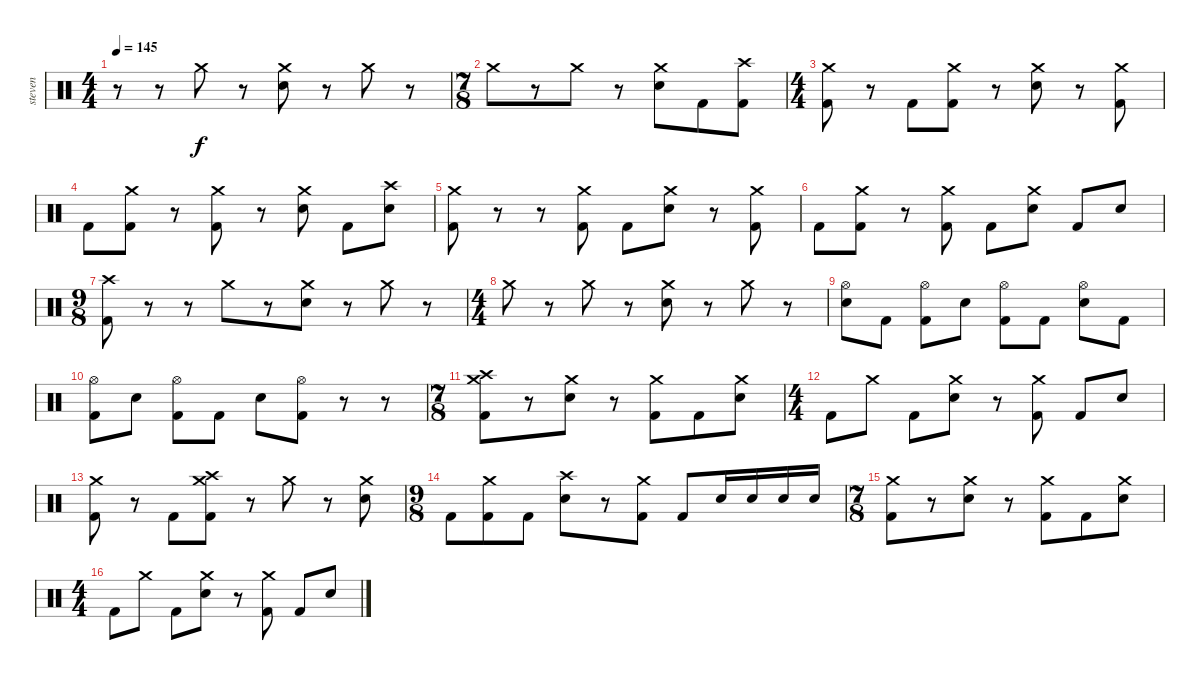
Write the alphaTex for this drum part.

\track ("steven" "steven") {instrument percussion}
\staff {score}
\articulation defaults
\ts (4 4)
\tempo 145
\clef neutral
\ks c
r.8{dy f} r.8 "Crash medium (hit)".8 r.8 ("Crash medium (hit)" "Electric Snare (hit)").8 r.8 "Crash medium (hit)".8 r.8 |
\ts (7 8)
"Crash medium (hit)".8 r.8 "Crash medium (hit)".8 r.8 ("Crash medium (hit)" "Electric Snare (hit)").8 "Kick (hit) 2".8 ("Crash high (hit)" "Kick (hit) 2").8 |
\ts (4 4)
("Crash medium (hit)" "Kick (hit) 2").8 r.8 "Kick (hit) 2".8 ("Crash medium (hit)" "Kick (hit) 2").8 r.8 ("Crash medium (hit)" "Electric Snare (hit)").8 r.8 ("Crash medium (hit)" "Kick (hit) 2").8 |
"Kick (hit) 2".8 ("Crash medium (hit)" "Kick (hit) 2").8 r.8 ("Crash medium (hit)" "Kick (hit) 2").8 r.8 ("Crash medium (hit)" "Electric Snare (hit)").8 "Kick (hit) 2".8 ("Crash high (hit)" "Electric Snare (hit)").8 |
("Crash medium (hit)" "Kick (hit) 2").8 r.8 r.8 ("Crash medium (hit)" "Kick (hit) 2").8 "Kick (hit) 2".8 ("Crash medium (hit)" "Electric Snare (hit)").8 r.8 ("Crash medium (hit)" "Kick (hit) 2").8 |
"Kick (hit) 2".8 ("Crash medium (hit)" "Kick (hit) 2").8 r.8 ("Crash medium (hit)" "Kick (hit) 2").8 "Kick (hit) 2".8 ("Crash medium (hit)" "Electric Snare (hit)").8 "Kick (hit) 2".8 "Electric Snare (hit)".8 |
\ts (9 8)
("Crash high (hit)" "Kick (hit) 2").8 r.8 r.8 "Crash medium (hit)".8 r.8 ("Crash medium (hit)" "Electric Snare (hit)").8 r.8 "Crash medium (hit)".8 r.8 |
\ts (4 4)
"Crash medium (hit)".8 r.8 "Crash medium (hit)".8 r.8 ("Crash medium (hit)" "Electric Snare (hit)").8 r.8 "Crash medium (hit)".8 r.8 |
("Hi-Hat (open)" "Electric Snare (hit)").8 "Kick (hit) 2".8 ("Hi-Hat (open)" "Kick (hit) 2").8 "Electric Snare (hit)".8 ("Hi-Hat (open)" "Kick (hit) 2").8 "Kick (hit) 2".8 ("Hi-Hat (open)" "Electric Snare (hit)").8 "Kick (hit) 2".8 |
("Hi-Hat (open)" "Kick (hit) 2").8 "Electric Snare (hit)".8 ("Hi-Hat (open)" "Kick (hit) 2").8 "Kick (hit) 2".8 "Electric Snare (hit)".8 ("Hi-Hat (open)" "Kick (hit) 2").8 r.8 r.8 |
\ts (7 8)
("Crash medium (hit)" "Crash high (hit)" "Kick (hit) 2").8 r.8 ("Crash medium (hit)" "Electric Snare (hit)").8 r.8 ("Crash medium (hit)" "Kick (hit) 2").8 "Kick (hit) 2".8 ("Crash medium (hit)" "Electric Snare (hit)").8 |
\ts (4 4)
"Kick (hit) 2".8 "Crash medium (hit)".8 "Kick (hit) 2".8 ("Crash medium (hit)" "Electric Snare (hit)").8 r.8 ("Crash medium (hit)" "Kick (hit) 2").8 "Kick (hit) 2".8 "Electric Snare (hit)".8 |
("Crash medium (hit)" "Kick (hit) 2").8 r.8 "Kick (hit) 2".8 ("Crash medium (hit)" "Crash high (hit)" "Kick (hit) 2").8 r.8 "Crash medium (hit)".8 r.8 ("Crash medium (hit)" "Electric Snare (hit)").8 |
\ts (9 8)
"Kick (hit) 2".8 ("Crash medium (hit)" "Kick (hit) 2").8 "Kick (hit) 2".8 ("Crash high (hit)" "Electric Snare (hit)").8 r.8 ("Crash medium (hit)" "Kick (hit) 2").8 "Kick (hit) 2".8 "Electric Snare (hit)".16 "Electric Snare (hit)".16 "Electric Snare (hit)".16 "Electric Snare (hit)".16 |
\ts (7 8)
("Crash medium (hit)" "Kick (hit) 2").8 r.8 ("Crash medium (hit)" "Electric Snare (hit)").8 r.8 ("Crash medium (hit)" "Kick (hit) 2").8 "Kick (hit) 2".8 ("Crash medium (hit)" "Electric Snare (hit)").8 |
\ts (4 4)
"Kick (hit) 2".8 "Crash medium (hit)".8 "Kick (hit) 2".8 ("Crash medium (hit)" "Electric Snare (hit)").8 r.8 ("Crash medium (hit)" "Kick (hit) 2").8 "Kick (hit) 2".8 "Electric Snare (hit)".8
